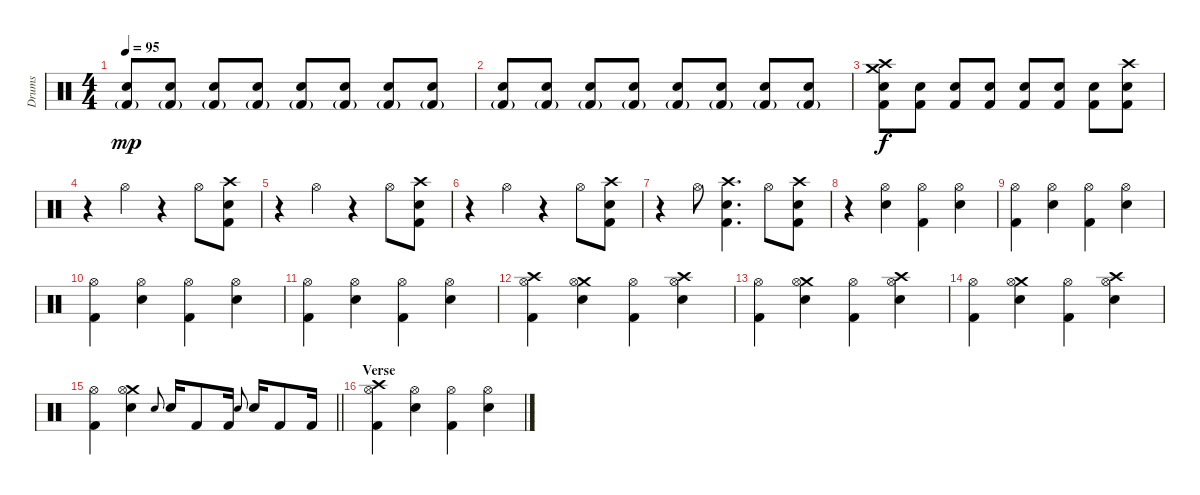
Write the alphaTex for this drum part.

\track ("Drums" "Drums") {instrument percussion}
\staff {score}
\articulation defaults
\ts (4 4)
\tempo 95
\clef neutral
\ks c
("Electric Snare (hit)" "Kick (hit) 2"{g}).8{dy mp} ("Electric Snare (hit)" "Kick (hit) 2"{g}).8 ("Electric Snare (hit)" "Kick (hit) 2"{g}).8 ("Electric Snare (hit)" "Kick (hit) 2"{g}).8 ("Electric Snare (hit)" "Kick (hit) 2"{g}).8 ("Electric Snare (hit)" "Kick (hit) 2"{g}).8 ("Electric Snare (hit)" "Kick (hit) 2"{g}).8 ("Electric Snare (hit)" "Kick (hit) 2"{g}).8 |
("Electric Snare (hit)" "Kick (hit) 2"{g}).8 ("Electric Snare (hit)" "Kick (hit) 2"{g}).8 ("Electric Snare (hit)" "Kick (hit) 2"{g}).8 ("Electric Snare (hit)" "Kick (hit) 2"{g}).8 ("Electric Snare (hit)" "Kick (hit) 2"{g}).8 ("Electric Snare (hit)" "Kick (hit) 2"{g}).8 ("Electric Snare (hit)" "Kick (hit) 2"{g}).8 ("Electric Snare (hit)" "Kick (hit) 2"{g}).8 |
("Crash high (hit)" "Crash medium (hit)" "Electric Snare (hit)" "Kick (hit) 2").8{dy f} ("Electric Snare (hit)" "Kick (hit) 2").8 ("Electric Snare (hit)" "Kick (hit) 2").8 ("Electric Snare (hit)" "Kick (hit) 2").8 ("Electric Snare (hit)" "Kick (hit) 2").8 ("Electric Snare (hit)" "Kick (hit) 2").8 ("Electric Snare (hit)" "Kick (hit) 2").8 ("Crash high (hit)" "Electric Snare (hit)" "Kick (hit) 2").8 |
r.4 "Hi-Hat (open)".4 r.4 "Hi-Hat (open)".8 ("Crash high (hit)" "Electric Snare (hit)" "Kick (hit) 2").8 |
r.4 "Hi-Hat (open)".4 r.4 "Hi-Hat (open)".8 ("Crash high (hit)" "Electric Snare (hit)" "Kick (hit) 2").8 |
r.4 "Hi-Hat (open)".4 r.4 "Hi-Hat (open)".8 ("Crash high (hit)" "Electric Snare (hit)" "Kick (hit) 2").8 |
r.4 "Hi-Hat (open)".8 ("Crash high (hit)" "Electric Snare (hit)" "Kick (hit) 2").4{d} "Hi-Hat (open)".8 ("Crash high (hit)" "Electric Snare (hit)" "Kick (hit) 2").8 |
r.4 ("Hi-Hat (open)" "Electric Snare (hit)").4 ("Hi-Hat (open)" "Kick (hit) 2").4 ("Hi-Hat (open)" "Electric Snare (hit)").4 |
("Hi-Hat (open)" "Kick (hit) 2").4 ("Hi-Hat (open)" "Electric Snare (hit)").4 ("Hi-Hat (open)" "Kick (hit) 2").4 ("Hi-Hat (open)" "Electric Snare (hit)").4 |
("Hi-Hat (open)" "Kick (hit) 2").4 ("Hi-Hat (open)" "Electric Snare (hit)").4 ("Hi-Hat (open)" "Kick (hit) 2").4 ("Hi-Hat (open)" "Electric Snare (hit)").4 |
("Hi-Hat (open)" "Kick (hit) 2").4 ("Hi-Hat (open)" "Electric Snare (hit)").4 ("Hi-Hat (open)" "Kick (hit) 2").4 ("Hi-Hat (open)" "Electric Snare (hit)").4 |
("Crash high (hit)" "Hi-Hat (open)" "Kick (hit) 2").4 ("Crash medium (hit)" "Hi-Hat (open)" "Electric Snare (hit)").4 ("Hi-Hat (open)" "Kick (hit) 2").4 ("Crash high (hit)" "Hi-Hat (open)" "Electric Snare (hit)").4 |
("Hi-Hat (open)" "Kick (hit) 2").4 ("Crash medium (hit)" "Hi-Hat (open)" "Electric Snare (hit)").4 ("Hi-Hat (open)" "Kick (hit) 2").4 ("Crash high (hit)" "Hi-Hat (open)" "Electric Snare (hit)").4 |
("Hi-Hat (open)" "Kick (hit) 2").4 ("Crash medium (hit)" "Hi-Hat (open)" "Electric Snare (hit)").4 ("Hi-Hat (open)" "Kick (hit) 2").4 ("Crash high (hit)" "Hi-Hat (open)" "Electric Snare (hit)").4 |
\barLineRight lightlight
("Hi-Hat (open)" "Kick (hit) 2").4 ("Crash medium (hit)" "Hi-Hat (open)" "Electric Snare (hit)").4 "Electric Snare (hit)".8{gr onbeat} "Electric Snare (hit)".16 "Kick (hit) 2".8 "Kick (hit) 2".16 "Electric Snare (hit)".8{gr onbeat} "Electric Snare (hit)".16 "Kick (hit) 2".8 "Kick (hit) 2".16 |
\section ("" "Verse")
("Crash high (hit)" "Hi-Hat (open)" "Kick (hit) 2").4 ("Hi-Hat (open)" "Electric Snare (hit)").4 ("Hi-Hat (open)" "Kick (hit) 2").4 ("Hi-Hat (open)" "Electric Snare (hit)").4
